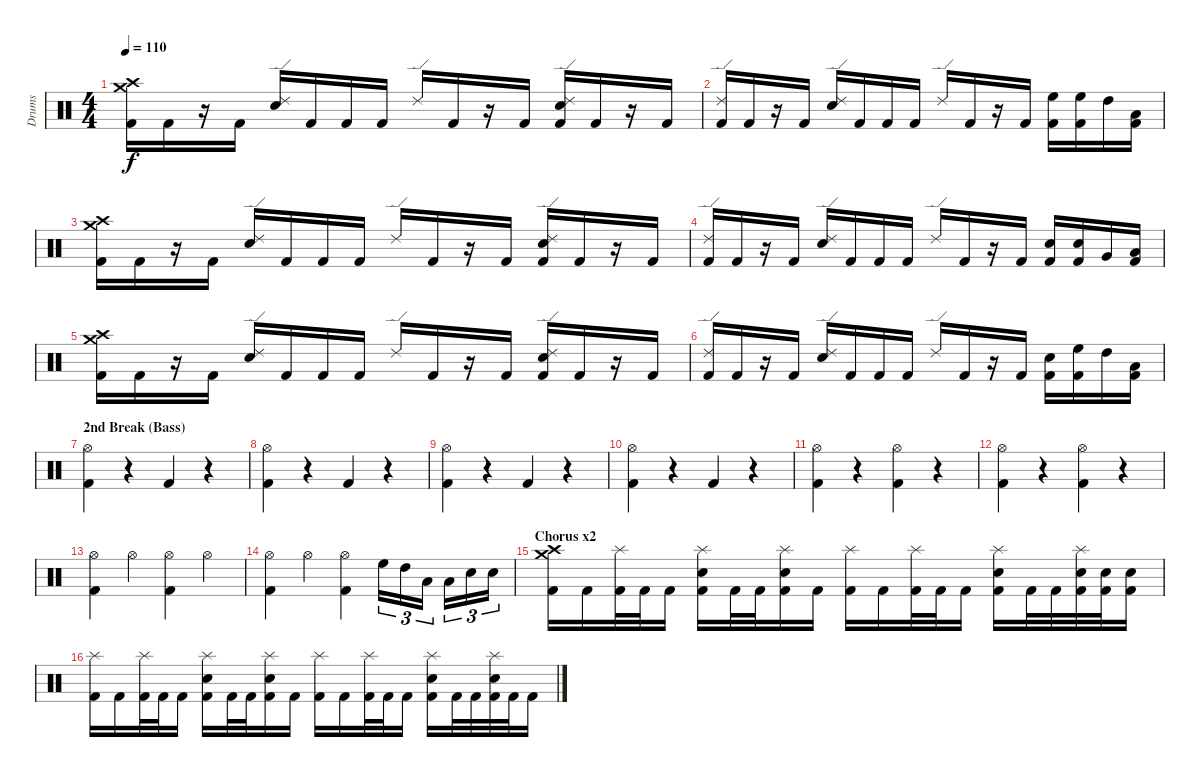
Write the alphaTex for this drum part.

\track ("Drums" "Drums") {instrument percussion}
\staff {score}
\articulation defaults
\ts (4 4)
\tempo 110
\clef neutral
\ks c
("Crash medium (hit)" "Crash high (hit)" "Kick (hit) 2").16{dy f} "Kick (hit) 2".16 r.16 "Kick (hit) 2".16 ("Ride (edge) 2" "Electric Snare (hit)").16 "Kick (hit) 2".16 "Kick (hit) 2".16 "Kick (hit) 2".16 "Ride (edge) 2".16 "Kick (hit) 2".16 r.16 "Kick (hit) 2".16 ("Ride (edge) 2" "Electric Snare (hit)" "Kick (hit) 2").16 "Kick (hit) 2".16 r.16 "Kick (hit) 2".16 |
("Ride (edge) 2" "Kick (hit) 2").16 "Kick (hit) 2".16 r.16 "Kick (hit) 2".16 ("Ride (edge) 2" "Electric Snare (hit)").16 "Kick (hit) 2".16 "Kick (hit) 2".16 "Kick (hit) 2".16 "Ride (edge) 2".16 "Kick (hit) 2".16 r.16 "Kick (hit) 2".16 ("High Floor Tom (hit)" "Kick (hit) 2").16 ("High Floor Tom (hit)" "Kick (hit) 2").16 "High Tom (hit)".16 ("Low Tom (hit)" "Kick (hit) 2").16 |
("Crash medium (hit)" "Crash high (hit)" "Kick (hit) 2").16 "Kick (hit) 2".16 r.16 "Kick (hit) 2".16 ("Ride (edge) 2" "Electric Snare (hit)").16 "Kick (hit) 2".16 "Kick (hit) 2".16 "Kick (hit) 2".16 "Ride (edge) 2".16 "Kick (hit) 2".16 r.16 "Kick (hit) 2".16 ("Ride (edge) 2" "Electric Snare (hit)" "Kick (hit) 2").16 "Kick (hit) 2".16 r.16 "Kick (hit) 2".16 |
("Ride (edge) 2" "Kick (hit) 2").16 "Kick (hit) 2".16 r.16 "Kick (hit) 2".16 ("Ride (edge) 2" "Electric Snare (hit)").16 "Kick (hit) 2".16 "Kick (hit) 2".16 "Kick (hit) 2".16 "Ride (edge) 2".16 "Kick (hit) 2".16 r.16 "Kick (hit) 2".16 ("Electric Snare (hit)" "Kick (hit) 2").16 ("Electric Snare (hit)" "Kick (hit) 2").16 "Very Low Tom (hit)".16 ("Low Floor Tom (hit)" "Kick (hit) 2").16 |
("Crash medium (hit)" "Crash high (hit)" "Kick (hit) 2").16 "Kick (hit) 2".16 r.16 "Kick (hit) 2".16 ("Ride (edge) 2" "Electric Snare (hit)").16 "Kick (hit) 2".16 "Kick (hit) 2".16 "Kick (hit) 2".16 "Ride (edge) 2".16 "Kick (hit) 2".16 r.16 "Kick (hit) 2".16 ("Ride (edge) 2" "Electric Snare (hit)" "Kick (hit) 2").16 "Kick (hit) 2".16 r.16 "Kick (hit) 2".16 |
("Ride (edge) 2" "Kick (hit) 2").16 "Kick (hit) 2".16 r.16 "Kick (hit) 2".16 ("Ride (edge) 2" "Electric Snare (hit)").16 "Kick (hit) 2".16 "Kick (hit) 2".16 "Kick (hit) 2".16 "Ride (edge) 2".16 "Kick (hit) 2".16 r.16 "Kick (hit) 2".16 ("Electric Snare (hit)" "Kick (hit) 2").16 ("High Floor Tom (hit)" "Kick (hit) 2").16 "High Tom (hit)".16 ("Low Tom (hit)" "Kick (hit) 2").16 |
\section ("" "2nd Break (Bass)")
("Hi-Hat (open)" "Kick (hit) 2").4 r.4 "Kick (hit) 2".4 r.4 |
("Hi-Hat (open)" "Kick (hit) 2").4 r.4 "Kick (hit) 2".4 r.4 |
("Hi-Hat (open)" "Kick (hit) 2").4 r.4 "Kick (hit) 2".4 r.4 |
("Hi-Hat (open)" "Kick (hit) 2").4 r.4 "Kick (hit) 2".4 r.4 |
("Hi-Hat (open)" "Kick (hit) 2").4 r.4 ("Hi-Hat (open)" "Kick (hit) 2").4 r.4 |
("Hi-Hat (open)" "Kick (hit) 2").4 r.4 ("Hi-Hat (open)" "Kick (hit) 2").4 r.4 |
("Hi-Hat (open)" "Kick (hit) 2").4 "Hi-Hat (open)".4 ("Hi-Hat (open)" "Kick (hit) 2").4 "Hi-Hat (open)".4 |
("Hi-Hat (open)" "Kick (hit) 2").4 "Hi-Hat (open)".4 ("Hi-Hat (open)" "Kick (hit) 2").4 "High Floor Tom (hit)".16{tu (3 2)} "High Tom (hit)".16{tu (3 2)} "Low Tom (hit)".16{tu (3 2)} "Low Floor Tom (hit)".16{tu (3 2)} "Electric Snare (hit)".16{tu (3 2)} "Electric Snare (hit)".16{tu (3 2)} |
\section ("" "Chorus x2")
("Crash medium (hit)" "Crash high (hit)" "Kick (hit) 2").16 "Kick (hit) 2".16 ("Splash (hit)" "Kick (hit) 2").32 "Kick (hit) 2".32 "Kick (hit) 2".16 ("Splash (hit)" "Electric Snare (hit)" "Kick (hit) 2").16 "Kick (hit) 2".32 "Kick (hit) 2".32 ("Splash (hit)" "Electric Snare (hit)" "Kick (hit) 2").16 "Kick (hit) 2".16 ("Splash (hit)" "Kick (hit) 2").16 "Kick (hit) 2".16 ("Splash (hit)" "Kick (hit) 2").32 "Kick (hit) 2".32 "Kick (hit) 2".16 ("Splash (hit)" "Electric Snare (hit)" "Kick (hit) 2").16 "Kick (hit) 2".32 "Kick (hit) 2".32 ("Splash (hit)" "Electric Snare (hit)" "Kick (hit) 2").32 ("Electric Snare (hit)" "Kick (hit) 2").32 ("Electric Snare (hit)" "Kick (hit) 2").16 |
("Splash (hit)" "Kick (hit) 2").16 "Kick (hit) 2".16 ("Splash (hit)" "Kick (hit) 2").32 "Kick (hit) 2".32 "Kick (hit) 2".16 ("Splash (hit)" "Electric Snare (hit)" "Kick (hit) 2").16 "Kick (hit) 2".32 "Kick (hit) 2".32 ("Splash (hit)" "Electric Snare (hit)" "Kick (hit) 2").16 "Kick (hit) 2".16 ("Splash (hit)" "Kick (hit) 2").16 "Kick (hit) 2".16 ("Splash (hit)" "Kick (hit) 2").32 "Kick (hit) 2".32 "Kick (hit) 2".16 ("Splash (hit)" "Electric Snare (hit)" "Kick (hit) 2").16 "Kick (hit) 2".32 "Kick (hit) 2".32 ("Splash (hit)" "Electric Snare (hit)" "Kick (hit) 2").32 "Kick (hit) 2".32 "Kick (hit) 2".16
